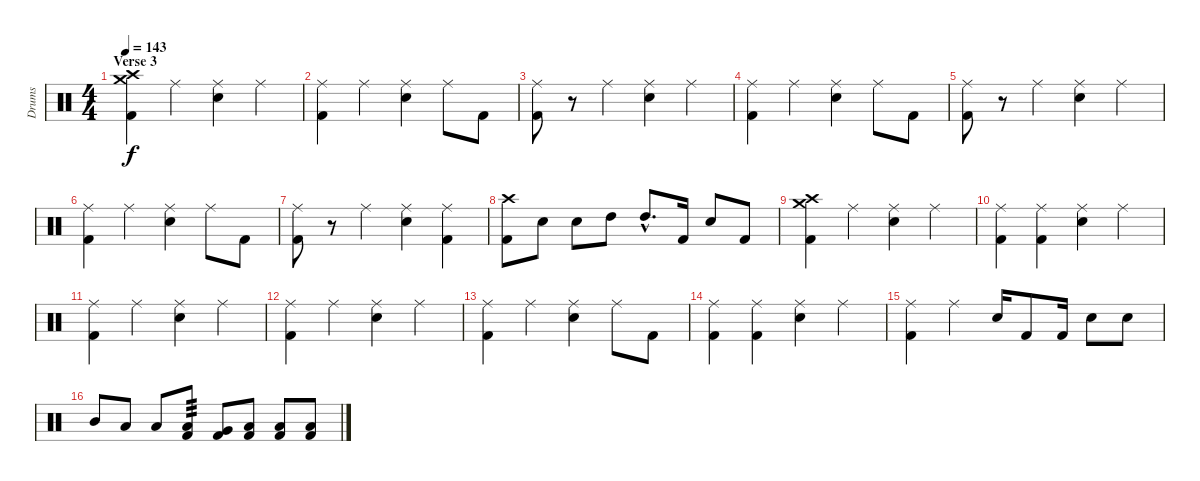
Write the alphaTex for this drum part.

\track ("Drums" "Drums") {instrument percussion}
\staff {score}
\articulation defaults
\ts (4 4)
\section ("" "Verse 3")
\tempo 143
\clef neutral
\ks c
("Crash medium (hit)" "Crash high (hit)" "Kick (hit) 2").4{dy f} "Ride (middle)".4 ("Ride (middle)" "Electric Snare (hit)").4 "Ride (middle)".4 |
("Ride (middle)" "Kick (hit) 2").4 "Ride (middle)".4 ("Ride (middle)" "Electric Snare (hit)").4 "Ride (middle)".8 "Kick (hit) 2".8 |
("Ride (middle)" "Kick (hit) 2").8 r.8 "Ride (middle)".4 ("Ride (middle)" "Electric Snare (hit)").4 "Ride (middle)".4 |
("Ride (middle)" "Kick (hit) 2").4 "Ride (middle)".4 ("Ride (middle)" "Electric Snare (hit)").4 "Ride (middle)".8 "Kick (hit) 2".8 |
("Ride (middle)" "Kick (hit) 2").8 r.8 "Ride (middle)".4 ("Ride (middle)" "Electric Snare (hit)").4 "Ride (middle)".4 |
("Ride (middle)" "Kick (hit) 2").4 "Ride (middle)".4 ("Ride (middle)" "Electric Snare (hit)").4 "Ride (middle)".8 "Kick (hit) 2".8 |
("Ride (middle)" "Kick (hit) 2").8 r.8 "Ride (middle)".4 ("Ride (middle)" "Electric Snare (hit)").4 ("Ride (middle)" "Kick (hit) 2").4 |
("Crash high (hit)" "Kick (hit) 2").8 "Electric Snare (hit)".8 "Electric Snare (hit)".8 "High Tom (hit)".8 "High Tom (hit)"{hac}.8{d} "Kick (hit) 2".16 "Electric Snare (hit)".8 "Kick (hit) 2".8 |
("Crash medium (hit)" "Crash high (hit)" "Kick (hit) 2").4 "Ride (middle)".4 ("Ride (middle)" "Electric Snare (hit)").4 "Ride (middle)".4 |
("Ride (middle)" "Kick (hit) 2").4 ("Ride (middle)" "Kick (hit) 2").4 ("Ride (middle)" "Electric Snare (hit)").4 "Ride (middle)".4 |
("Ride (middle)" "Kick (hit) 2").4 "Ride (middle)".4 ("Ride (middle)" "Electric Snare (hit)").4 "Ride (middle)".4 |
("Ride (middle)" "Kick (hit) 2").4 "Ride (middle)".4 ("Ride (middle)" "Electric Snare (hit)").4 "Ride (middle)".4 |
("Ride (middle)" "Kick (hit) 2").4 "Ride (middle)".4 ("Ride (middle)" "Electric Snare (hit)").4 "Ride (middle)".8 "Kick (hit) 2".8 |
("Ride (middle)" "Kick (hit) 2").4 ("Ride (middle)" "Kick (hit) 2").4 ("Ride (middle)" "Electric Snare (hit)").4 "Ride (middle)".4 |
("Ride (middle)" "Kick (hit) 2").4 "Ride (middle)".4 "Electric Snare (hit)".16 "Kick (hit) 2".8 "Kick (hit) 2".16 "Electric Snare (hit)".8 "Electric Snare (hit)".8 |
"Mid Tom (hit)".8 "Low Tom (hit)".8 "Low Tom (hit)".8 ("Low Tom (hit)" "Kick (hit) 2").8{tp 3} ("Very Low Tom (hit)" "Kick (hit) 2").8 ("Low Floor Tom (hit)" "Kick (hit) 2").8 ("Low Floor Tom (hit)" "Kick (hit) 2").8 ("Low Floor Tom (hit)" "Kick (hit) 2").8
